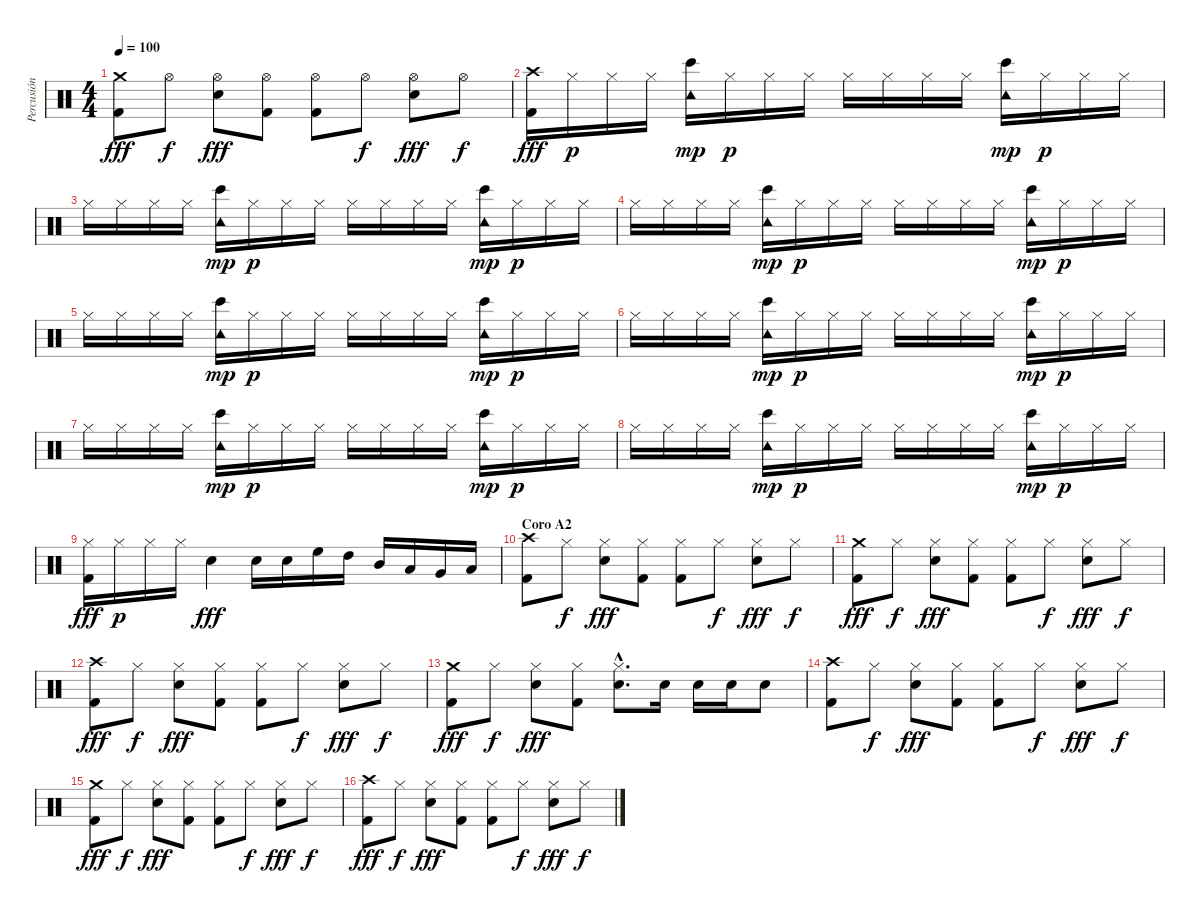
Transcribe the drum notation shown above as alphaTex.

\track ("Percusión" "Percusión") {instrument percussion}
\staff {score}
\articulation defaults
\ts (4 4)
\tempo 100
\clef neutral
\ks c
("Crash medium (hit)" "Kick (hit) 2").8{dy fff} "Hi-Hat (open)".8{dy f} ("Hi-Hat (open)" "Snare (hit) 2").8{dy fff} ("Hi-Hat (open)" "Kick (hit) 2").8 ("Hi-Hat (open)" "Kick (hit) 2").8 "Hi-Hat (open)".8{dy f} ("Hi-Hat (open)" "Snare (hit) 2").8{dy fff} "Hi-Hat (open)".8{dy f} |
("Crash high (hit)" "Kick (hit) 2").16{dy fff} "Hi-Hat (closed)".16{dy p} "Hi-Hat (closed)".16 "Hi-Hat (closed)".16 ("Tambourine (hit)" "Bongo High (hit)").16{dy mp} "Hi-Hat (closed)".16{dy p} "Hi-Hat (closed)".16 "Hi-Hat (closed)".16 "Hi-Hat (closed)".16 "Hi-Hat (closed)".16 "Hi-Hat (closed)".16 "Hi-Hat (closed)".16 ("Tambourine (hit)" "Bongo High (hit)").16{dy mp} "Hi-Hat (closed)".16{dy p} "Hi-Hat (closed)".16 "Hi-Hat (closed)".16 |
"Hi-Hat (closed)".16 "Hi-Hat (closed)".16 "Hi-Hat (closed)".16 "Hi-Hat (closed)".16 ("Tambourine (hit)" "Bongo High (hit)").16{dy mp} "Hi-Hat (closed)".16{dy p} "Hi-Hat (closed)".16 "Hi-Hat (closed)".16 "Hi-Hat (closed)".16 "Hi-Hat (closed)".16 "Hi-Hat (closed)".16 "Hi-Hat (closed)".16 ("Tambourine (hit)" "Bongo High (hit)").16{dy mp} "Hi-Hat (closed)".16{dy p} "Hi-Hat (closed)".16 "Hi-Hat (closed)".16 |
"Hi-Hat (closed)".16 "Hi-Hat (closed)".16 "Hi-Hat (closed)".16 "Hi-Hat (closed)".16 ("Tambourine (hit)" "Bongo High (hit)").16{dy mp} "Hi-Hat (closed)".16{dy p} "Hi-Hat (closed)".16 "Hi-Hat (closed)".16 "Hi-Hat (closed)".16 "Hi-Hat (closed)".16 "Hi-Hat (closed)".16 "Hi-Hat (closed)".16 ("Tambourine (hit)" "Bongo High (hit)").16{dy mp} "Hi-Hat (closed)".16{dy p} "Hi-Hat (closed)".16 "Hi-Hat (closed)".16 |
"Hi-Hat (closed)".16 "Hi-Hat (closed)".16 "Hi-Hat (closed)".16 "Hi-Hat (closed)".16 ("Tambourine (hit)" "Bongo High (hit)").16{dy mp} "Hi-Hat (closed)".16{dy p} "Hi-Hat (closed)".16 "Hi-Hat (closed)".16 "Hi-Hat (closed)".16 "Hi-Hat (closed)".16 "Hi-Hat (closed)".16 "Hi-Hat (closed)".16 ("Tambourine (hit)" "Bongo High (hit)").16{dy mp} "Hi-Hat (closed)".16{dy p} "Hi-Hat (closed)".16 "Hi-Hat (closed)".16 |
"Hi-Hat (closed)".16 "Hi-Hat (closed)".16 "Hi-Hat (closed)".16 "Hi-Hat (closed)".16 ("Tambourine (hit)" "Bongo High (hit)").16{dy mp} "Hi-Hat (closed)".16{dy p} "Hi-Hat (closed)".16 "Hi-Hat (closed)".16 "Hi-Hat (closed)".16 "Hi-Hat (closed)".16 "Hi-Hat (closed)".16 "Hi-Hat (closed)".16 ("Tambourine (hit)" "Bongo High (hit)").16{dy mp} "Hi-Hat (closed)".16{dy p} "Hi-Hat (closed)".16 "Hi-Hat (closed)".16 |
"Hi-Hat (closed)".16 "Hi-Hat (closed)".16 "Hi-Hat (closed)".16 "Hi-Hat (closed)".16 ("Tambourine (hit)" "Bongo High (hit)").16{dy mp} "Hi-Hat (closed)".16{dy p} "Hi-Hat (closed)".16 "Hi-Hat (closed)".16 "Hi-Hat (closed)".16 "Hi-Hat (closed)".16 "Hi-Hat (closed)".16 "Hi-Hat (closed)".16 ("Tambourine (hit)" "Bongo High (hit)").16{dy mp} "Hi-Hat (closed)".16{dy p} "Hi-Hat (closed)".16 "Hi-Hat (closed)".16 |
"Hi-Hat (closed)".16 "Hi-Hat (closed)".16 "Hi-Hat (closed)".16 "Hi-Hat (closed)".16 ("Tambourine (hit)" "Bongo High (hit)").16{dy mp} "Hi-Hat (closed)".16{dy p} "Hi-Hat (closed)".16 "Hi-Hat (closed)".16 "Hi-Hat (closed)".16 "Hi-Hat (closed)".16 "Hi-Hat (closed)".16 "Hi-Hat (closed)".16 ("Tambourine (hit)" "Bongo High (hit)").16{dy mp} "Hi-Hat (closed)".16{dy p} "Hi-Hat (closed)".16 "Hi-Hat (closed)".16 |
("Hi-Hat (closed)" "Kick (hit) 2").16{dy fff} "Hi-Hat (closed)".16{dy p} "Hi-Hat (closed)".16 "Hi-Hat (closed)".16 "Snare (hit) 2".4{dy fff} "Snare (hit) 2".16 "Snare (hit) 2".16 "High Floor Tom (hit)".16{volume 9} "High Tom (hit)".16 "Mid Tom (hit)".16 "Low Tom (hit)".16 "Very Low Tom (hit)".16 "Low Floor Tom (hit)".16 |
\section ("" "Coro A2")
("Crash high (hit)" "Kick (hit) 2").8{volume 5} "Hi-Hat (closed)".8{dy f} ("Hi-Hat (closed)" "Snare (hit) 2").8{dy fff} ("Hi-Hat (closed)" "Kick (hit) 2").8 ("Hi-Hat (closed)" "Kick (hit) 2").8 "Hi-Hat (closed)".8{dy f} ("Hi-Hat (closed)" "Snare (hit) 2").8{dy fff} "Hi-Hat (closed)".8{dy f} |
("Crash medium (hit)" "Kick (hit) 2").8{dy fff} "Hi-Hat (closed)".8{dy f} ("Hi-Hat (closed)" "Snare (hit) 2").8{dy fff} ("Hi-Hat (closed)" "Kick (hit) 2").8 ("Hi-Hat (closed)" "Kick (hit) 2").8 "Hi-Hat (closed)".8{dy f} ("Hi-Hat (closed)" "Snare (hit) 2").8{dy fff} "Hi-Hat (closed)".8{dy f} |
("Crash high (hit)" "Kick (hit) 2").8{dy fff} "Hi-Hat (closed)".8{dy f} ("Hi-Hat (closed)" "Snare (hit) 2").8{dy fff} ("Hi-Hat (closed)" "Kick (hit) 2").8 ("Hi-Hat (closed)" "Kick (hit) 2").8 "Hi-Hat (closed)".8{dy f} ("Hi-Hat (closed)" "Snare (hit) 2").8{dy fff} "Hi-Hat (closed)".8{dy f} |
("Crash medium (hit)" "Kick (hit) 2").8{dy fff} "Hi-Hat (closed)".8{dy f} ("Hi-Hat (closed)" "Snare (hit) 2").8{dy fff} ("Hi-Hat (closed)" "Kick (hit) 2").8 ("Hi-Hat (closed)"{hac} "Snare (hit) 2"{hac}).8{d} "Snare (hit) 2".16 "Snare (hit) 2".16 "Snare (hit) 2".16 "Snare (hit) 2".8 |
("Crash high (hit)" "Kick (hit) 2").8 "Hi-Hat (closed)".8{dy f} ("Hi-Hat (closed)" "Snare (hit) 2").8{dy fff} ("Hi-Hat (closed)" "Kick (hit) 2").8 ("Hi-Hat (closed)" "Kick (hit) 2").8 "Hi-Hat (closed)".8{dy f} ("Hi-Hat (closed)" "Snare (hit) 2").8{dy fff} "Hi-Hat (closed)".8{dy f} |
("Crash medium (hit)" "Kick (hit) 2").8{dy fff} "Hi-Hat (closed)".8{dy f} ("Hi-Hat (closed)" "Snare (hit) 2").8{dy fff} ("Hi-Hat (closed)" "Kick (hit) 2").8 ("Hi-Hat (closed)" "Kick (hit) 2").8 "Hi-Hat (closed)".8{dy f} ("Hi-Hat (closed)" "Snare (hit) 2").8{dy fff} "Hi-Hat (closed)".8{dy f} |
("Crash high (hit)" "Kick (hit) 2").8{dy fff} "Hi-Hat (closed)".8{dy f} ("Hi-Hat (closed)" "Snare (hit) 2").8{dy fff} ("Hi-Hat (closed)" "Kick (hit) 2").8 ("Hi-Hat (closed)" "Kick (hit) 2").8 "Hi-Hat (closed)".8{dy f} ("Hi-Hat (closed)" "Snare (hit) 2").8{dy fff} "Hi-Hat (closed)".8{dy f}
